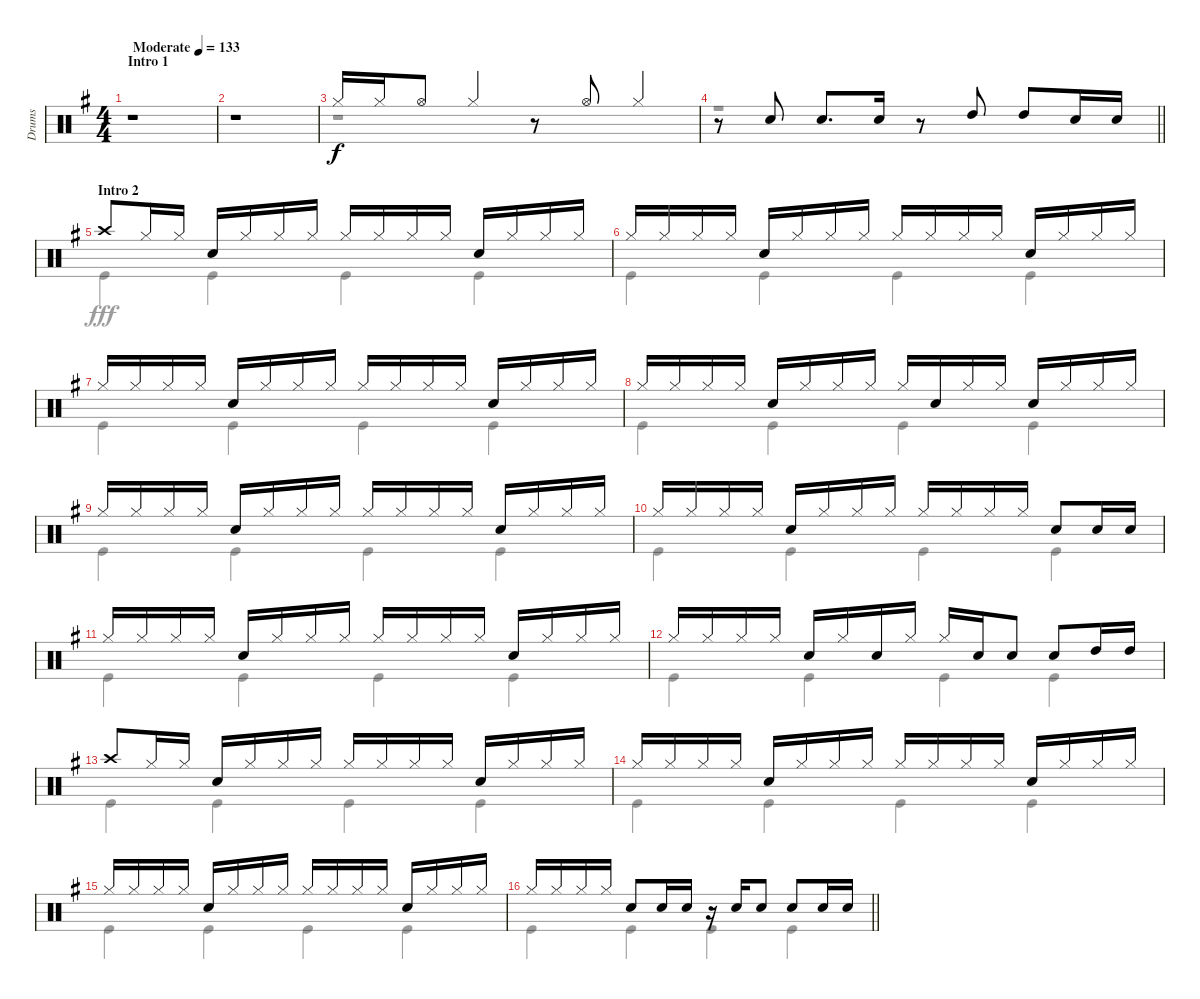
\track ("Drums" "Drums") {instrument percussion}
\staff {score}
\articulation defaults
\voice
\ts (4 4)
\section ("" "Intro 1")
\tempo (133 "Moderate")
\clef neutral
\ks g
r.1{dy f} |
r.1 |
"Hi-Hat (closed)".16 "Hi-Hat (closed)".16 "Hi-Hat (open)".8 "Hi-Hat (closed)".4 r.8 "Hi-Hat (open)".8 "Hi-Hat (closed)".4 |
\barLineRight lightlight
r.8 "Snare (hit) 2".8 "Snare (hit) 2".8{d} "Snare (hit) 2".16 r.8 "High Tom (hit)".8 "High Tom (hit)".8 "Snare (hit) 2".16 "Snare (hit) 2".16 |
\section ("" "Intro 2")
"Crash high (hit)".8 "Hi-Hat (closed)".16 "Hi-Hat (closed)".16 "Snare (hit) 2".16 "Hi-Hat (closed)".16 "Hi-Hat (closed)".16 "Hi-Hat (closed)".16 "Hi-Hat (closed)".16 "Hi-Hat (closed)".16 "Hi-Hat (closed)".16 "Hi-Hat (closed)".16 "Snare (hit) 2".16 "Hi-Hat (closed)".16 "Hi-Hat (closed)".16 "Hi-Hat (closed)".16 |
"Hi-Hat (closed)".16 "Hi-Hat (closed)".16 "Hi-Hat (closed)".16 "Hi-Hat (closed)".16 "Snare (hit) 2".16 "Hi-Hat (closed)".16 "Hi-Hat (closed)".16 "Hi-Hat (closed)".16 "Hi-Hat (closed)".16 "Hi-Hat (closed)".16 "Hi-Hat (closed)".16 "Hi-Hat (closed)".16 "Snare (hit) 2".16 "Hi-Hat (closed)".16 "Hi-Hat (closed)".16 "Hi-Hat (closed)".16 |
"Hi-Hat (closed)".16 "Hi-Hat (closed)".16 "Hi-Hat (closed)".16 "Hi-Hat (closed)".16 "Snare (hit) 2".16 "Hi-Hat (closed)".16 "Hi-Hat (closed)".16 "Hi-Hat (closed)".16 "Hi-Hat (closed)".16 "Hi-Hat (closed)".16 "Hi-Hat (closed)".16 "Hi-Hat (closed)".16 "Snare (hit) 2".16 "Hi-Hat (closed)".16 "Hi-Hat (closed)".16 "Hi-Hat (closed)".16 |
"Hi-Hat (closed)".16 "Hi-Hat (closed)".16 "Hi-Hat (closed)".16 "Hi-Hat (closed)".16 "Snare (hit) 2".16 "Hi-Hat (closed)".16 "Hi-Hat (closed)".16 "Hi-Hat (closed)".16 "Hi-Hat (closed)".16 "Snare (hit) 2".16 "Hi-Hat (closed)".16 "Hi-Hat (closed)".16 "Snare (hit) 2".16 "Hi-Hat (closed)".16 "Hi-Hat (closed)".16 "Hi-Hat (closed)".16 |
"Hi-Hat (closed)".16 "Hi-Hat (closed)".16 "Hi-Hat (closed)".16 "Hi-Hat (closed)".16 "Snare (hit) 2".16 "Hi-Hat (closed)".16 "Hi-Hat (closed)".16 "Hi-Hat (closed)".16 "Hi-Hat (closed)".16 "Hi-Hat (closed)".16 "Hi-Hat (closed)".16 "Hi-Hat (closed)".16 "Snare (hit) 2".16 "Hi-Hat (closed)".16 "Hi-Hat (closed)".16 "Hi-Hat (closed)".16 |
"Hi-Hat (closed)".16 "Hi-Hat (closed)".16 "Hi-Hat (closed)".16 "Hi-Hat (closed)".16 "Snare (hit) 2".16 "Hi-Hat (closed)".16 "Hi-Hat (closed)".16 "Hi-Hat (closed)".16 "Hi-Hat (closed)".16 "Hi-Hat (closed)".16 "Hi-Hat (closed)".16 "Hi-Hat (closed)".16 "Snare (hit) 2".8 "Snare (hit) 2".16 "Snare (hit) 2".16 |
"Hi-Hat (closed)".16 "Hi-Hat (closed)".16 "Hi-Hat (closed)".16 "Hi-Hat (closed)".16 "Snare (hit) 2".16 "Hi-Hat (closed)".16 "Hi-Hat (closed)".16 "Hi-Hat (closed)".16 "Hi-Hat (closed)".16 "Hi-Hat (closed)".16 "Hi-Hat (closed)".16 "Hi-Hat (closed)".16 "Snare (hit) 2".16 "Hi-Hat (closed)".16 "Hi-Hat (closed)".16 "Hi-Hat (closed)".16 |
"Hi-Hat (closed)".16 "Hi-Hat (closed)".16 "Hi-Hat (closed)".16 "Hi-Hat (closed)".16 "Snare (hit) 2".16 "Hi-Hat (closed)".16 "Snare (hit) 2".16 "Hi-Hat (closed)".16 "Hi-Hat (closed)".16 "Snare (hit) 2".16 "Snare (hit) 2".8 "Snare (hit) 2".8 "High Tom (hit)".16 "High Tom (hit)".16 |
"Crash high (hit)".8 "Hi-Hat (closed)".16 "Hi-Hat (closed)".16 "Snare (hit) 2".16 "Hi-Hat (closed)".16 "Hi-Hat (closed)".16 "Hi-Hat (closed)".16 "Hi-Hat (closed)".16 "Hi-Hat (closed)".16 "Hi-Hat (closed)".16 "Hi-Hat (closed)".16 "Snare (hit) 2".16 "Hi-Hat (closed)".16 "Hi-Hat (closed)".16 "Hi-Hat (closed)".16 |
"Hi-Hat (closed)".16 "Hi-Hat (closed)".16 "Hi-Hat (closed)".16 "Hi-Hat (closed)".16 "Snare (hit) 2".16 "Hi-Hat (closed)".16 "Hi-Hat (closed)".16 "Hi-Hat (closed)".16 "Hi-Hat (closed)".16 "Hi-Hat (closed)".16 "Hi-Hat (closed)".16 "Hi-Hat (closed)".16 "Snare (hit) 2".16 "Hi-Hat (closed)".16 "Hi-Hat (closed)".16 "Hi-Hat (closed)".16 |
"Hi-Hat (closed)".16 "Hi-Hat (closed)".16 "Hi-Hat (closed)".16 "Hi-Hat (closed)".16 "Snare (hit) 2".16 "Hi-Hat (closed)".16 "Hi-Hat (closed)".16 "Hi-Hat (closed)".16 "Hi-Hat (closed)".16 "Hi-Hat (closed)".16 "Hi-Hat (closed)".16 "Hi-Hat (closed)".16 "Snare (hit) 2".16 "Hi-Hat (closed)".16 "Hi-Hat (closed)".16 "Hi-Hat (closed)".16 |
\barLineRight lightlight "Hi-Hat (closed)".16 "Hi-Hat (closed)".16 "Hi-Hat (closed)".16 "Hi-Hat (closed)".16 "Snare (hit) 2".8 "Snare (hit) 2".16 "Snare (hit) 2".16
r.16 "Snare (hit) 2".16 "Snare (hit) 2".8 "Snare (hit) 2".8 "Snare (hit) 2".16 "Snare (hit) 2".16
\voice
\clef neutral
\ottava regular
\simile none
\ks g
r.1{dy fff} |
r.1 |
r.1 |
\barLineRight lightlight
r.1 |
"Kick (hit)".4 "Kick (hit)".4 "Kick (hit)".4 "Kick (hit)".4 |
"Kick (hit)".4 "Kick (hit)".4 "Kick (hit)".4 "Kick (hit)".4 |
"Kick (hit)".4 "Kick (hit)".4 "Kick (hit)".4 "Kick (hit)".4 |
"Kick (hit)".4 "Kick (hit)".4 "Kick (hit)".4 "Kick (hit)".4 |
"Kick (hit)".4 "Kick (hit)".4 "Kick (hit)".4 "Kick (hit)".4 |
"Kick (hit)".4 "Kick (hit)".4 "Kick (hit)".4 "Kick (hit)".4 |
"Kick (hit)".4 "Kick (hit)".4 "Kick (hit)".4 "Kick (hit)".4 |
"Kick (hit)".4 "Kick (hit)".4 "Kick (hit)".4 "Kick (hit)".4 |
"Kick (hit)".4 "Kick (hit)".4 "Kick (hit)".4 "Kick (hit)".4 |
"Kick (hit)".4 "Kick (hit)".4 "Kick (hit)".4 "Kick (hit)".4 |
"Kick (hit)".4 "Kick (hit)".4 "Kick (hit)".4 "Kick (hit)".4 |
\barLineRight lightlight "Kick (hit)".4 "Kick (hit)".4 "Kick (hit)".4 "Kick (hit)".4
